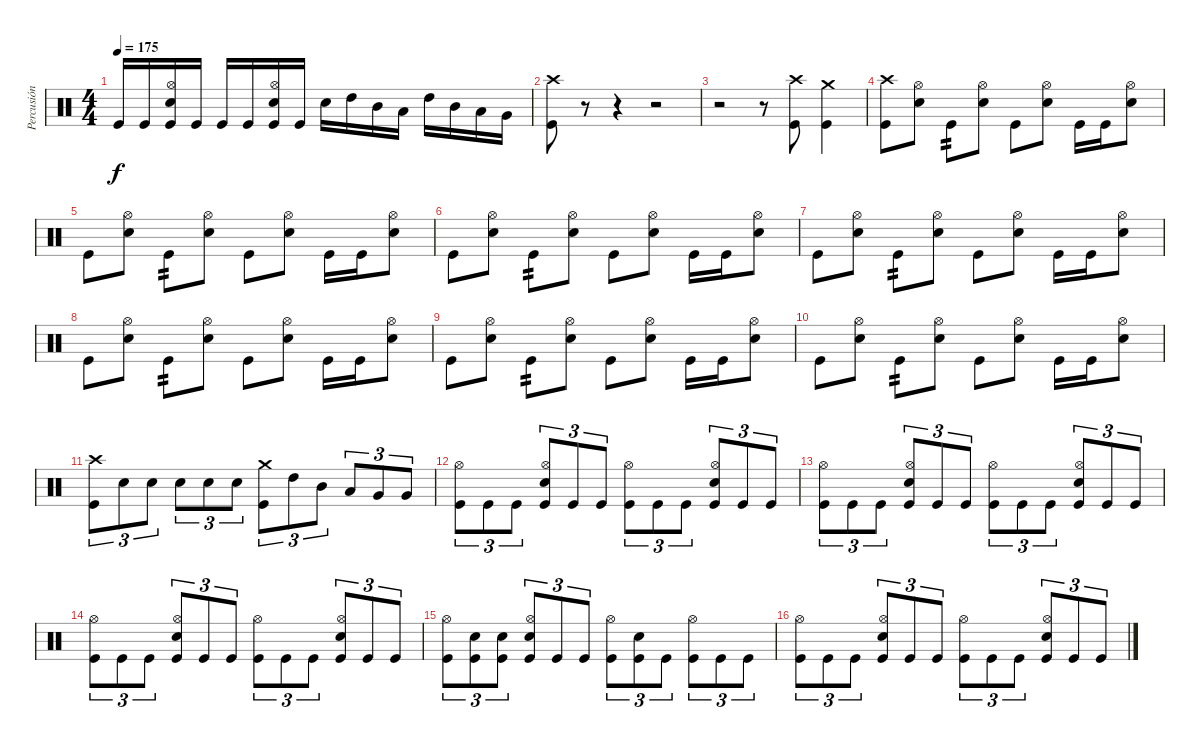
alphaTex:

\track ("Percusión" "Percusión") {instrument percussion}
\staff {score}
\articulation defaults
\ts (4 4)
\tempo 175
\clef neutral
\ks c "Kick (hit)".16{dy f} "Kick (hit)".16
("Hi-Hat (open)" "Snare (hit) 2" "Kick (hit)").16 "Kick (hit)".16 "Kick (hit)".16 "Kick (hit)".16 ("Hi-Hat (open)" "Snare (hit) 2" "Kick (hit)").16 "Kick (hit)".16 "Snare (hit) 2".16 "High Tom (hit)".16 "Mid Tom (hit)".16 "Low Tom (hit)".16 "High Tom (hit)".16 "Mid Tom (hit)".16 "Low Tom (hit)".16 "Very Low Tom (hit)".16 |
("Crash high (hit)" "Kick (hit)").8 r.8{volume 5} r.4 r.2 |
r.2 r.8{volume 16} ("Crash high (hit)" "Kick (hit)").8 ("Crash medium (hit)" "Kick (hit)").4 |
("Crash high (hit)" "Kick (hit)").8 ("Hi-Hat (open)" "Snare (hit) 2").8 "Kick (hit)".8{tp 2} ("Hi-Hat (open)" "Snare (hit) 2").8 "Kick (hit)".8 ("Hi-Hat (open)" "Snare (hit) 2").8 "Kick (hit)".16 "Kick (hit)".16 ("Hi-Hat (open)" "Snare (hit) 2").8 |
"Kick (hit)".8 ("Hi-Hat (open)" "Snare (hit) 2").8 "Kick (hit)".8{tp 2} ("Hi-Hat (open)" "Snare (hit) 2").8 "Kick (hit)".8 ("Hi-Hat (open)" "Snare (hit) 2").8 "Kick (hit)".16 "Kick (hit)".16 ("Hi-Hat (open)" "Snare (hit) 2").8 |
"Kick (hit)".8 ("Hi-Hat (open)" "Snare (hit) 2").8 "Kick (hit)".8{tp 2} ("Hi-Hat (open)" "Snare (hit) 2").8 "Kick (hit)".8 ("Hi-Hat (open)" "Snare (hit) 2").8 "Kick (hit)".16 "Kick (hit)".16 ("Hi-Hat (open)" "Snare (hit) 2").8 |
"Kick (hit)".8 ("Hi-Hat (open)" "Snare (hit) 2").8 "Kick (hit)".8{tp 2} ("Hi-Hat (open)" "Snare (hit) 2").8 "Kick (hit)".8 ("Hi-Hat (open)" "Snare (hit) 2").8 "Kick (hit)".16 "Kick (hit)".16 ("Hi-Hat (open)" "Snare (hit) 2").8 |
"Kick (hit)".8 ("Hi-Hat (open)" "Snare (hit) 2").8 "Kick (hit)".8{tp 2} ("Hi-Hat (open)" "Snare (hit) 2").8 "Kick (hit)".8 ("Hi-Hat (open)" "Snare (hit) 2").8 "Kick (hit)".16 "Kick (hit)".16 ("Hi-Hat (open)" "Snare (hit) 2").8 |
"Kick (hit)".8 ("Hi-Hat (open)" "Snare (hit) 2").8 "Kick (hit)".8{tp 2} ("Hi-Hat (open)" "Snare (hit) 2").8 "Kick (hit)".8 ("Hi-Hat (open)" "Snare (hit) 2").8 "Kick (hit)".16 "Kick (hit)".16 ("Hi-Hat (open)" "Snare (hit) 2").8 |
"Kick (hit)".8 ("Hi-Hat (open)" "Snare (hit) 2").8 "Kick (hit)".8{tp 2} ("Hi-Hat (open)" "Snare (hit) 2").8 "Kick (hit)".8 ("Hi-Hat (open)" "Snare (hit) 2").8 "Kick (hit)".16 "Kick (hit)".16 ("Hi-Hat (open)" "Snare (hit) 2").8 |
("Crash high (hit)" "Kick (hit)").8{tu (3 2)} "Snare (hit) 2".8{tu (3 2)} "Snare (hit) 2".8{tu (3 2)} "Snare (hit) 2".8{tu (3 2)} "Snare (hit) 2".8{tu (3 2)} "Snare (hit) 2".8{tu (3 2)} ("Crash medium (hit)" "Kick (hit)").8{tu (3 2)} "High Tom (hit)".8{tu (3 2)} "Mid Tom (hit)".8{tu (3 2)} "Low Tom (hit)".8{tu (3 2)} "Very Low Tom (hit)".8{tu (3 2)} "Very Low Tom (hit)".8{tu (3 2)} |
("Hi-Hat (open)" "Kick (hit)").8{tu (3 2)} "Kick (hit)".8{tu (3 2)} "Kick (hit)".8{tu (3 2)} ("Hi-Hat (open)" "Snare (hit) 2" "Kick (hit)").8{tu (3 2)} "Kick (hit)".8{tu (3 2)} "Kick (hit)".8{tu (3 2)} ("Hi-Hat (open)" "Kick (hit)").8{tu (3 2)} "Kick (hit)".8{tu (3 2)} "Kick (hit)".8{tu (3 2)} ("Hi-Hat (open)" "Snare (hit) 2" "Kick (hit)").8{tu (3 2)} "Kick (hit)".8{tu (3 2)} "Kick (hit)".8{tu (3 2)} |
("Hi-Hat (open)" "Kick (hit)").8{tu (3 2)} "Kick (hit)".8{tu (3 2)} "Kick (hit)".8{tu (3 2)} ("Hi-Hat (open)" "Snare (hit) 2" "Kick (hit)").8{tu (3 2)} "Kick (hit)".8{tu (3 2)} "Kick (hit)".8{tu (3 2)} ("Hi-Hat (open)" "Kick (hit)").8{tu (3 2)} "Kick (hit)".8{tu (3 2)} "Kick (hit)".8{tu (3 2)} ("Hi-Hat (open)" "Snare (hit) 2" "Kick (hit)").8{tu (3 2)} "Kick (hit)".8{tu (3 2)} "Kick (hit)".8{tu (3 2)} |
("Hi-Hat (open)" "Kick (hit)").8{tu (3 2)} "Kick (hit)".8{tu (3 2)} "Kick (hit)".8{tu (3 2)} ("Hi-Hat (open)" "Snare (hit) 2" "Kick (hit)").8{tu (3 2)} "Kick (hit)".8{tu (3 2)} "Kick (hit)".8{tu (3 2)} ("Hi-Hat (open)" "Kick (hit)").8{tu (3 2)} "Kick (hit)".8{tu (3 2)} "Kick (hit)".8{tu (3 2)} ("Hi-Hat (open)" "Snare (hit) 2" "Kick (hit)").8{tu (3 2)} "Kick (hit)".8{tu (3 2)} "Kick (hit)".8{tu (3 2)} |
("Hi-Hat (open)" "Kick (hit)").8{tu (3 2)} ("Snare (hit) 2" "Kick (hit)").8{tu (3 2)} ("Snare (hit) 2" "Kick (hit)").8{tu (3 2)} ("Hi-Hat (open)" "Snare (hit) 2" "Kick (hit)").8{tu (3 2)} "Kick (hit)".8{tu (3 2)} "Kick (hit)".8{tu (3 2)} ("Hi-Hat (open)" "Kick (hit)").8{tu (3 2)} ("Snare (hit) 2" "Kick (hit)").8{tu (3 2)} "Kick (hit)".8{tu (3 2)} ("Hi-Hat (open)" "Kick (hit)").8{tu (3 2)} "Kick (hit)".8{tu (3 2)} "Kick (hit)".8{tu (3 2)} |
("Hi-Hat (open)" "Kick (hit)").8{tu (3 2)} "Kick (hit)".8{tu (3 2)} "Kick (hit)".8{tu (3 2)} ("Hi-Hat (open)" "Snare (hit) 2" "Kick (hit)").8{tu (3 2)} "Kick (hit)".8{tu (3 2)} "Kick (hit)".8{tu (3 2)} ("Hi-Hat (open)" "Kick (hit)").8{tu (3 2)} "Kick (hit)".8{tu (3 2)} "Kick (hit)".8{tu (3 2)} ("Hi-Hat (open)" "Snare (hit) 2" "Kick (hit)").8{tu (3 2)} "Kick (hit)".8{tu (3 2)} "Kick (hit)".8{tu (3 2)}
